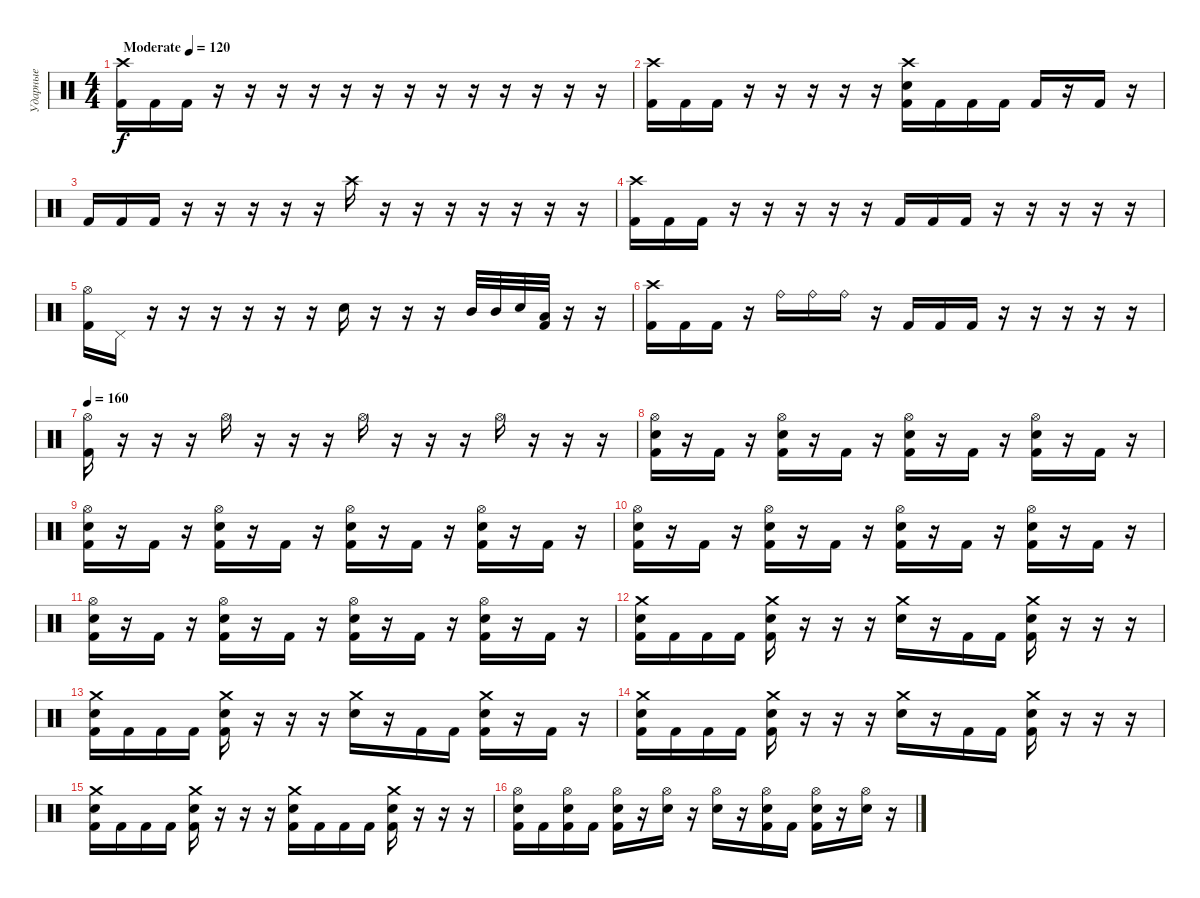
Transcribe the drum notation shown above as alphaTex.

\track ("Ударные" "Ударные") {instrument percussion}
\staff {score}
\articulation defaults
\ts (4 4)
\tempo (120 "Moderate")
\clef neutral
\ks c
("Crash high (hit)" "Kick (hit) 2").16{dy f} "Kick (hit) 2".16 "Kick (hit) 2".16 r.16 r.16 r.16 r.16 r.16 r.16 r.16 r.16 r.16 r.16 r.16 r.16 r.16 |
("Crash high (hit)" "Kick (hit) 2").16 "Kick (hit) 2".16 "Kick (hit) 2".16 r.16 r.16 r.16 r.16 r.16 ("Crash high (hit)" "Electric Snare (hit)" "Kick (hit) 2").16 "Kick (hit) 2".16 "Kick (hit) 2".16 "Kick (hit) 2".16 "Kick (hit) 2".16 r.16 "Kick (hit) 2".16 r.16 |
"Kick (hit) 2".16 "Kick (hit) 2".16 "Kick (hit) 2".16 r.16 r.16 r.16 r.16 r.16 "Crash high (hit)".16 r.16 r.16 r.16 r.16 r.16 r.16 r.16 |
("Crash high (hit)" "Kick (hit) 2").16 "Kick (hit) 2".16 "Kick (hit) 2".16 r.16 r.16 r.16 r.16 r.16 "Kick (hit) 2".16 "Kick (hit) 2".16 "Kick (hit) 2".16 r.16 r.16 r.16 r.16 r.16 |
("Hi-Hat (open)" "Kick (hit) 2").16 "Pedal Hi-Hat (hit)".16 r.16 r.16 r.16 r.16 r.16 r.16 "Electric Snare (hit)".16 r.16 r.16 r.16 "Mid Tom (hit)".32 "Mid Tom (hit)".32 "Electric Snare (hit)".32 ("Low Tom (hit)" "Kick (hit) 2").32 r.16 r.16 |
("Crash high (hit)" "Kick (hit) 2").16 "Kick (hit) 2".16 "Kick (hit) 2".16 r.16 "Ride (bell)".16 "Ride (bell)".16 "Ride (bell)".16 r.16 "Kick (hit) 2".16 "Kick (hit) 2".16 "Kick (hit) 2".16 r.16 r.16 r.16 r.16 r.16 |
\tempo 160
("Hi-Hat (open)" "Kick (hit) 2").16 r.16 r.16 r.16 "Hi-Hat (open)".16 r.16 r.16 r.16 "Hi-Hat (open)".16 r.16 r.16 r.16 "Hi-Hat (open)".16 r.16 r.16 r.16 |
("Hi-Hat (open)" "Electric Snare (hit)" "Kick (hit) 2").16 r.16 "Kick (hit) 2".16 r.16 ("Hi-Hat (open)" "Electric Snare (hit)" "Kick (hit) 2").16 r.16 "Kick (hit) 2".16 r.16 ("Hi-Hat (open)" "Electric Snare (hit)" "Kick (hit) 2").16 r.16 "Kick (hit) 2".16 r.16 ("Hi-Hat (open)" "Electric Snare (hit)" "Kick (hit) 2").16 r.16 "Kick (hit) 2".16 r.16 |
("Hi-Hat (open)" "Electric Snare (hit)" "Kick (hit) 2").16 r.16 "Kick (hit) 2".16 r.16 ("Hi-Hat (open)" "Electric Snare (hit)" "Kick (hit) 2").16 r.16 "Kick (hit) 2".16 r.16 ("Hi-Hat (open)" "Electric Snare (hit)" "Kick (hit) 2").16 r.16 "Kick (hit) 2".16 r.16 ("Hi-Hat (open)" "Electric Snare (hit)" "Kick (hit) 2").16 r.16 "Kick (hit) 2".16 r.16 |
("Hi-Hat (open)" "Electric Snare (hit)" "Kick (hit) 2").16 r.16 "Kick (hit) 2".16 r.16 ("Hi-Hat (open)" "Electric Snare (hit)" "Kick (hit) 2").16 r.16 "Kick (hit) 2".16 r.16 ("Hi-Hat (open)" "Electric Snare (hit)" "Kick (hit) 2").16 r.16 "Kick (hit) 2".16 r.16 ("Hi-Hat (open)" "Electric Snare (hit)" "Kick (hit) 2").16 r.16 "Kick (hit) 2".16 r.16 |
("Hi-Hat (open)" "Electric Snare (hit)" "Kick (hit) 2").16 r.16 "Kick (hit) 2".16 r.16 ("Hi-Hat (open)" "Electric Snare (hit)" "Kick (hit) 2").16 r.16 "Kick (hit) 2".16 r.16 ("Hi-Hat (open)" "Electric Snare (hit)" "Kick (hit) 2").16 r.16 "Kick (hit) 2".16 r.16 ("Hi-Hat (open)" "Electric Snare (hit)" "Kick (hit) 2").16 r.16 "Kick (hit) 2".16 r.16 |
("Crash medium (hit)" "Electric Snare (hit)" "Kick (hit) 2").16 "Kick (hit) 2".16 "Kick (hit) 2".16 "Kick (hit) 2".16 ("Crash medium (hit)" "Electric Snare (hit)" "Kick (hit) 2").16 r.16 r.16 r.16 ("Crash medium (hit)" "Electric Snare (hit)").16 r.16 "Kick (hit) 2".16 "Kick (hit) 2".16 ("Crash medium (hit)" "Electric Snare (hit)" "Kick (hit) 2").16 r.16 r.16 r.16 |
("Crash medium (hit)" "Electric Snare (hit)" "Kick (hit) 2").16 "Kick (hit) 2".16 "Kick (hit) 2".16 "Kick (hit) 2".16 ("Crash medium (hit)" "Electric Snare (hit)" "Kick (hit) 2").16 r.16 r.16 r.16 ("Crash medium (hit)" "Electric Snare (hit)").16 r.16 "Kick (hit) 2".16 "Kick (hit) 2".16 ("Crash medium (hit)" "Electric Snare (hit)" "Kick (hit) 2").16 r.16 "Kick (hit) 2".16 r.16 |
("Crash medium (hit)" "Electric Snare (hit)" "Kick (hit) 2").16 "Kick (hit) 2".16 "Kick (hit) 2".16 "Kick (hit) 2".16 ("Crash medium (hit)" "Electric Snare (hit)" "Kick (hit) 2").16 r.16 r.16 r.16 ("Crash medium (hit)" "Electric Snare (hit)").16 r.16 "Kick (hit) 2".16 "Kick (hit) 2".16 ("Crash medium (hit)" "Electric Snare (hit)" "Kick (hit) 2").16 r.16 r.16 r.16 |
("Crash medium (hit)" "Electric Snare (hit)" "Kick (hit) 2").16 "Kick (hit) 2".16 "Kick (hit) 2".16 "Kick (hit) 2".16 ("Crash medium (hit)" "Electric Snare (hit)" "Kick (hit) 2").16 r.16 r.16 r.16 ("Crash medium (hit)" "Electric Snare (hit)" "Kick (hit) 2").16 "Kick (hit) 2".16 "Kick (hit) 2".16 "Kick (hit) 2".16 ("Crash medium (hit)" "Electric Snare (hit)" "Kick (hit) 2").16 r.16 r.16 r.16 |
("Hi-Hat (open)" "Electric Snare (hit)" "Kick (hit) 2").16 "Kick (hit) 2".16 ("Hi-Hat (open)" "Electric Snare (hit)" "Kick (hit) 2").16 "Kick (hit) 2".16 ("Hi-Hat (open)" "Electric Snare (hit)" "Kick (hit) 2").16 r.16 ("Hi-Hat (open)" "Electric Snare (hit)").16 r.16 ("Hi-Hat (open)" "Electric Snare (hit)").16 r.16 ("Hi-Hat (open)" "Electric Snare (hit)" "Kick (hit) 2").16 "Kick (hit) 2".16 ("Hi-Hat (open)" "Electric Snare (hit)" "Kick (hit) 2").16 r.16 ("Hi-Hat (open)" "Electric Snare (hit)").16 r.16
